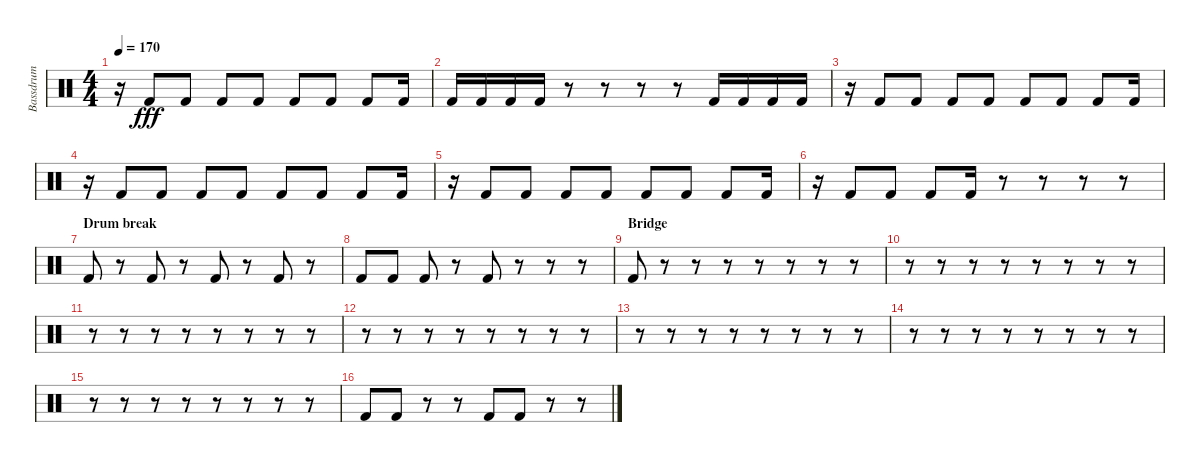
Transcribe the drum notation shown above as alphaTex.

\track ("Bassdrum" "Bassdrum") {instrument percussion}
\staff {score}
\articulation defaults
\ts (4 4)
\tempo 170
\clef neutral
\ks c
r.16{dy fff} "Kick (hit) 2".8 "Kick (hit) 2".8 "Kick (hit) 2".8 "Kick (hit) 2".8 "Kick (hit) 2".8 "Kick (hit) 2".8 "Kick (hit) 2".8 "Kick (hit) 2".16 |
"Kick (hit) 2".16 "Kick (hit) 2".16 "Kick (hit) 2".16 "Kick (hit) 2".16 r.8 r.8 r.8 r.8 "Kick (hit) 2".16 "Kick (hit) 2".16 "Kick (hit) 2".16 "Kick (hit) 2".16 |
r.16 "Kick (hit) 2".8 "Kick (hit) 2".8 "Kick (hit) 2".8 "Kick (hit) 2".8 "Kick (hit) 2".8 "Kick (hit) 2".8 "Kick (hit) 2".8 "Kick (hit) 2".16 |
r.16 "Kick (hit) 2".8 "Kick (hit) 2".8 "Kick (hit) 2".8 "Kick (hit) 2".8 "Kick (hit) 2".8 "Kick (hit) 2".8 "Kick (hit) 2".8 "Kick (hit) 2".16 |
r.16 "Kick (hit) 2".8 "Kick (hit) 2".8 "Kick (hit) 2".8 "Kick (hit) 2".8 "Kick (hit) 2".8 "Kick (hit) 2".8 "Kick (hit) 2".8 "Kick (hit) 2".16 |
r.16 "Kick (hit) 2".8 "Kick (hit) 2".8 "Kick (hit) 2".8 "Kick (hit) 2".16 r.8 r.8 r.8 r.8 |
\section ("" "Drum break")
"Kick (hit) 2".8 r.8 "Kick (hit) 2".8 r.8 "Kick (hit) 2".8 r.8 "Kick (hit) 2".8 r.8 |
"Kick (hit) 2".8 "Kick (hit) 2".8 "Kick (hit) 2".8 r.8 "Kick (hit) 2".8 r.8 r.8 r.8 |
\section ("" "Bridge")
"Kick (hit) 2".8 r.8 r.8 r.8 r.8 r.8 r.8 r.8 |
r.8 r.8 r.8 r.8 r.8 r.8 r.8 r.8 |
r.8 r.8 r.8 r.8 r.8 r.8 r.8 r.8 |
r.8 r.8 r.8 r.8 r.8 r.8 r.8 r.8 |
r.8 r.8 r.8 r.8 r.8 r.8 r.8 r.8 |
r.8 r.8 r.8 r.8 r.8 r.8 r.8 r.8 |
r.8 r.8 r.8 r.8 r.8 r.8 r.8 r.8 |
"Kick (hit) 2".8 "Kick (hit) 2".8 r.8 r.8 "Kick (hit) 2".8 "Kick (hit) 2".8 r.8 r.8
